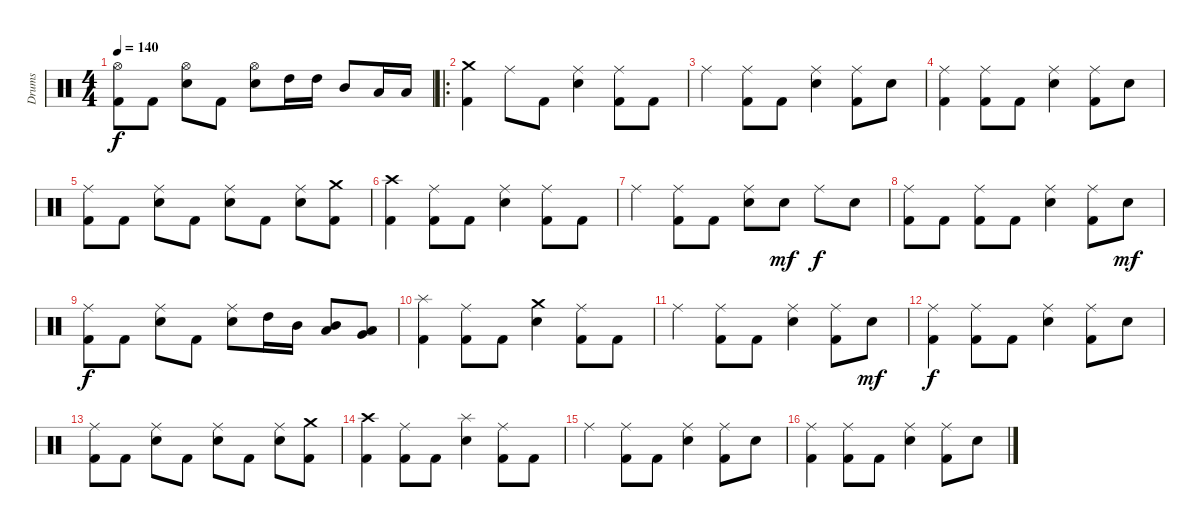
\track ("Drums" "Drums") {instrument percussion}
\staff {score}
\articulation defaults
\ts (4 4)
\tempo 140
\clef neutral
\ks c
("Hi-Hat (open)" "Kick (hit) 2").8{dy f} "Kick (hit) 2".8 ("Hi-Hat (open)" "Electric Snare (hit)").8 "Kick (hit) 2".8 ("Hi-Hat (open)" "Electric Snare (hit)").8 "High Tom (hit)".16 "High Tom (hit)".16 "Mid Tom (hit)".8 "Low Tom (hit)".16 "Low Tom (hit)".16 |
\ro
("Crash medium (hit)" "Kick (hit) 2").4 "Ride (middle)".8 "Kick (hit) 2".8 ("Ride (middle)" "Electric Snare (hit)").4 ("Ride (middle)" "Kick (hit) 2").8 "Kick (hit) 2".8 |
"Ride (middle)".4 ("Ride (middle)" "Kick (hit) 2").8 "Kick (hit) 2".8 ("Ride (middle)" "Electric Snare (hit)").4 ("Ride (middle)" "Kick (hit) 2").8 "Electric Snare (hit)".8 |
("Ride (middle)" "Kick (hit) 2").4 ("Ride (middle)" "Kick (hit) 2").8 "Kick (hit) 2".8 ("Ride (middle)" "Electric Snare (hit)").4 ("Ride (middle)" "Kick (hit) 2").8 "Electric Snare (hit)".8 |
("Ride (middle)" "Kick (hit) 2").8 "Kick (hit) 2".8 ("Ride (middle)" "Electric Snare (hit)").8 "Kick (hit) 2".8 ("Ride (middle)" "Electric Snare (hit)").8 "Kick (hit) 2".8 ("Ride (middle)" "Electric Snare (hit)").8 ("Crash medium (hit)" "Kick (hit) 2").8 |
("Crash high (hit)" "Kick (hit) 2").4 ("Ride (middle)" "Kick (hit) 2").8 "Kick (hit) 2".8 ("Ride (middle)" "Electric Snare (hit)").4 ("Ride (middle)" "Kick (hit) 2").8 "Kick (hit) 2".8 |
"Ride (middle)".4 ("Ride (middle)" "Kick (hit) 2").8 "Kick (hit) 2".8 ("Ride (middle)" "Electric Snare (hit)").8 "Electric Snare (hit)".8{dy mf} "Ride (middle)".8{dy f} "Electric Snare (hit)".8 |
("Ride (middle)" "Kick (hit) 2").8 "Kick (hit) 2".8 ("Ride (middle)" "Kick (hit) 2").8 "Kick (hit) 2".8 ("Ride (middle)" "Electric Snare (hit)").4 ("Ride (middle)" "Kick (hit) 2").8 "Electric Snare (hit)".8{dy mf} |
("Ride (middle)" "Kick (hit) 2").8{dy f} "Kick (hit) 2".8 ("Ride (middle)" "Electric Snare (hit)").8 "Kick (hit) 2".8 ("Ride (middle)" "Electric Snare (hit)").8 "High Tom (hit)".16 "Mid Tom (hit)".16 ("Mid Tom (hit)" "Low Tom (hit)").8 ("Low Tom (hit)" "Very Low Tom (hit)").8 |
("Splash (hit)" "Kick (hit) 2").4 ("Ride (middle)" "Kick (hit) 2").8 "Kick (hit) 2".8 ("Crash medium (hit)" "Electric Snare (hit)").4 ("Ride (middle)" "Kick (hit) 2").8 "Kick (hit) 2".8 |
"Ride (middle)".4 ("Ride (middle)" "Kick (hit) 2").8 "Kick (hit) 2".8 ("Ride (middle)" "Electric Snare (hit)").4 ("Ride (middle)" "Kick (hit) 2").8 "Electric Snare (hit)".8{dy mf} |
("Ride (middle)" "Kick (hit) 2").4{dy f} ("Ride (middle)" "Kick (hit) 2").8 "Kick (hit) 2".8 ("Ride (middle)" "Electric Snare (hit)").4 ("Ride (middle)" "Kick (hit) 2").8 "Electric Snare (hit)".8 |
("Ride (middle)" "Kick (hit) 2").8 "Kick (hit) 2".8 ("Ride (middle)" "Electric Snare (hit)").8 "Kick (hit) 2".8 ("Ride (middle)" "Electric Snare (hit)").8 "Kick (hit) 2".8 ("Ride (middle)" "Electric Snare (hit)").8 ("Crash medium (hit)" "Kick (hit) 2").8 |
("Crash high (hit)" "Kick (hit) 2").4 ("Ride (middle)" "Kick (hit) 2").8 "Kick (hit) 2".8 ("Splash (hit)" "Electric Snare (hit)").4 ("Ride (middle)" "Kick (hit) 2").8 "Kick (hit) 2".8 |
"Ride (middle)".4 ("Ride (middle)" "Kick (hit) 2").8 "Kick (hit) 2".8 ("Ride (middle)" "Electric Snare (hit)").4 ("Ride (middle)" "Kick (hit) 2").8 "Electric Snare (hit)".8 |
("Ride (middle)" "Kick (hit) 2").4 ("Ride (middle)" "Kick (hit) 2").8 "Kick (hit) 2".8 ("Ride (middle)" "Electric Snare (hit)").4 ("Ride (middle)" "Kick (hit) 2").8 "Electric Snare (hit)".8
